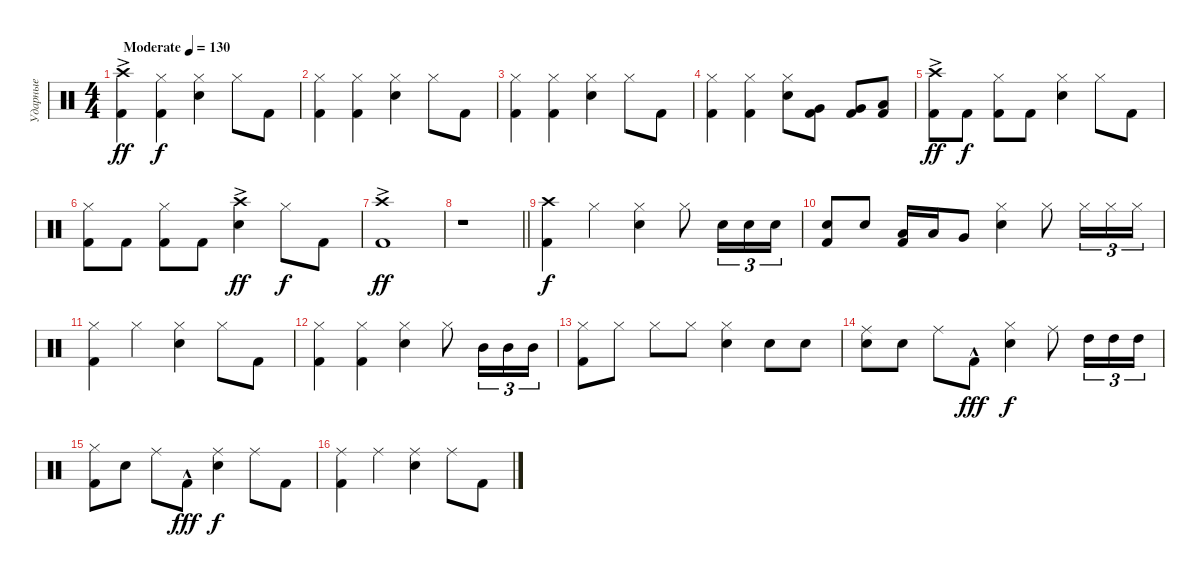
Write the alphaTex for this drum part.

\track ("Ударные" "Ударные") {instrument percussion}
\staff {score}
\articulation defaults
\ts (4 4)
\tempo (130 "Moderate")
\clef neutral
\ks c
("Kick (hit) 2" "Crash high (hit)"{ac}).4{dy ff} ("Kick (hit) 2" "Hi-Hat (closed)").4{dy f} ("Snare (hit) 2" "Hi-Hat (closed)").4 "Hi-Hat (closed)".8 "Kick (hit) 2".8 |
("Kick (hit) 2" "Hi-Hat (closed)").4 ("Kick (hit) 2" "Hi-Hat (closed)").4 ("Snare (hit) 2" "Hi-Hat (closed)").4 "Hi-Hat (closed)".8 "Kick (hit) 2".8 |
("Kick (hit) 2" "Hi-Hat (closed)").4 ("Kick (hit) 2" "Hi-Hat (closed)").4 ("Snare (hit) 2" "Hi-Hat (closed)").4 "Hi-Hat (closed)".8 "Kick (hit) 2".8 |
("Kick (hit) 2" "Hi-Hat (closed)").4 ("Kick (hit) 2" "Hi-Hat (closed)").4 ("Snare (hit) 2" "Hi-Hat (closed)").8 ("Kick (hit) 2" "Very Low Tom (hit)").8 ("Kick (hit) 2" "Very Low Tom (hit)").8 ("Kick (hit) 2" "Low Floor Tom (hit)").8 |
("Kick (hit) 2" "Crash high (hit)"{ac}).8{dy ff} "Kick (hit) 2".8{dy f} ("Kick (hit) 2" "Hi-Hat (closed)").8 "Kick (hit) 2".8 ("Snare (hit) 2" "Hi-Hat (closed)").4 "Hi-Hat (closed)".8 "Kick (hit) 2".8 |
("Kick (hit) 2" "Hi-Hat (closed)").8 "Kick (hit) 2".8 ("Kick (hit) 2" "Hi-Hat (closed)").8 "Kick (hit) 2".8 ("Snare (hit) 2" "Crash high (hit)"{ac}).4{dy ff} "Hi-Hat (closed)".8{dy f} "Kick (hit) 2".8 |
("Kick (hit) 2" "Crash high (hit)"{ac}).1{dy ff} |
\barLineRight lightlight
r.1 |
("Kick (hit) 2" "Crash high (hit)").4{dy f} "Hi-Hat (closed)".4 ("Snare (hit) 2" "Hi-Hat (closed)").4 "Hi-Hat (closed)".8 "Electric Snare (hit)".16{tu (3 2)} "Electric Snare (hit)".16{tu (3 2)} "Electric Snare (hit)".16{tu (3 2)} |
("Kick (hit) 2" "Electric Snare (hit)").8 "Electric Snare (hit)".8 ("Kick (hit) 2" "Low Tom (hit)").16 "Low Tom (hit)".16 "Very Low Tom (hit)".8 ("Snare (hit) 2" "Hi-Hat (closed)").4 "Hi-Hat (closed)".8 "Hi-Hat (closed)".16{tu (3 2)} "Hi-Hat (closed)".16{tu (3 2)} "Hi-Hat (closed)".16{tu (3 2)} |
("Kick (hit) 2" "Hi-Hat (closed)").4 "Hi-Hat (closed)".4 ("Snare (hit) 2" "Hi-Hat (closed)").4 "Hi-Hat (closed)".8 "Kick (hit) 2".8 |
("Kick (hit) 2" "Hi-Hat (closed)").4 ("Kick (hit) 2" "Hi-Hat (closed)").4 ("Snare (hit) 2" "Hi-Hat (closed)").4 "Hi-Hat (closed)".8 "Mid Tom (hit)".16{tu (3 2)} "Mid Tom (hit)".16{tu (3 2)} "Mid Tom (hit)".16{tu (3 2)} |
("Kick (hit) 2" "Hi-Hat (closed)").8 "Hi-Hat (closed)".8 "Hi-Hat (closed)".8 "Hi-Hat (closed)".8 ("Snare (hit) 2" "Hi-Hat (closed)").4 "Snare (hit) 2".8 "Snare (hit) 2".8 |
("Snare (hit) 2" "Ride (middle)").8 "Snare (hit) 2".8 "Ride (middle)".8 "Kick (hit) 2"{hac}.8{dy fff} ("Snare (hit) 2" "Hi-Hat (closed)").4{dy f} "Ride (middle)".8 "High Tom (hit)".16{tu (3 2)} "High Tom (hit)".16{tu (3 2)} "High Tom (hit)".16{tu (3 2)} |
("Kick (hit) 2" "Hi-Hat (closed)").8 "Snare (hit) 2".8 "Ride (middle)".8 "Kick (hit) 2"{hac}.8{dy fff} ("Snare (hit) 2" "Ride (middle)").4{dy f} "Ride (middle)".8 "Kick (hit) 2".8 |
("Kick (hit) 2" "Ride (middle)").4 "Ride (middle)".4 ("Snare (hit) 2" "Ride (middle)").4 "Ride (middle)".8 "Kick (hit) 2".8
